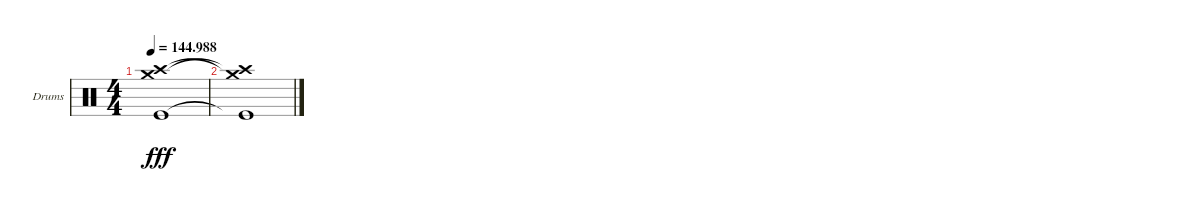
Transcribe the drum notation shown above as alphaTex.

\defaultSystemsLayout 4
\bracketExtendMode groupsimilarinstruments
\firstSystemTrackNameOrientation horizontal
\otherSystemsTrackNameOrientation horizontal
\track ("Drumkit (Chad Smith)" "Drums") {instrument percussion}
\staff {score}
\articulation defaults
\ts (4 4)
\tempo
144.988
\accidentals auto
\clef neutral
\ottava regular
\simile none
\ks c
("Crash medium (hit)"{t} "Crash high (hit)"{t} "Kick (hit)"{t}).1{dy fff} |
("Crash high (hit)"{t} "Crash medium (hit)"{t} "Kick (hit)"{t}).1
